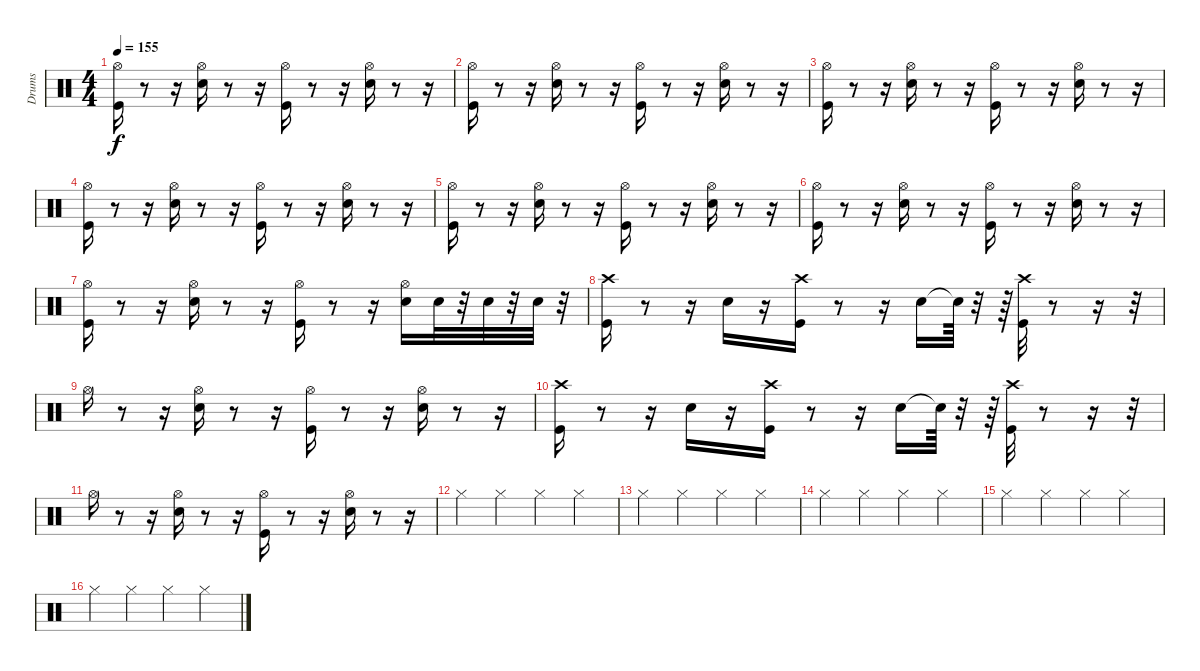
\track ("Drums" "Drums") {instrument percussion}
\staff {score}
\articulation defaults
\ts (4 4)
\tempo 155
\clef neutral
\ks c
("Hi-Hat (open)" "Kick (hit)").16{dy f} r.8 r.16 ("Hi-Hat (open)" "Snare (hit) 2").16 r.8 r.16 ("Kick (hit)" "Hi-Hat (open)").16 r.8 r.16 ("Snare (hit) 2" "Hi-Hat (open)").16 r.8 r.16 |
("Hi-Hat (open)" "Kick (hit)").16 r.8 r.16 ("Hi-Hat (open)" "Snare (hit) 2").16 r.8 r.16 ("Kick (hit)" "Hi-Hat (open)").16 r.8 r.16 ("Snare (hit) 2" "Hi-Hat (open)").16 r.8 r.16 |
("Hi-Hat (open)" "Kick (hit)").16 r.8 r.16 ("Hi-Hat (open)" "Snare (hit) 2").16 r.8 r.16 ("Kick (hit)" "Hi-Hat (open)").16 r.8 r.16 ("Snare (hit) 2" "Hi-Hat (open)").16 r.8 r.16 |
("Hi-Hat (open)" "Kick (hit)").16 r.8 r.16 ("Hi-Hat (open)" "Snare (hit) 2").16 r.8 r.16 ("Kick (hit)" "Hi-Hat (open)").16 r.8 r.16 ("Snare (hit) 2" "Hi-Hat (open)").16 r.8 r.16 |
("Hi-Hat (open)" "Kick (hit)").16 r.8 r.16 ("Hi-Hat (open)" "Snare (hit) 2").16 r.8 r.16 ("Kick (hit)" "Hi-Hat (open)").16 r.8 r.16 ("Snare (hit) 2" "Hi-Hat (open)").16 r.8 r.16 |
("Hi-Hat (open)" "Kick (hit)").16 r.8 r.16 ("Hi-Hat (open)" "Snare (hit) 2").16 r.8 r.16 ("Kick (hit)" "Hi-Hat (open)").16 r.8 r.16 ("Snare (hit) 2" "Hi-Hat (open)").16 r.8 r.16 |
("Kick (hit)" "Hi-Hat (open)").16 r.8 r.16 ("Snare (hit) 2" "Hi-Hat (open)").16 r.8 r.16 ("Kick (hit)" "Hi-Hat (open)").16 r.8 r.16 ("Snare (hit) 2" "Hi-Hat (open)").16 "Snare (hit) 2".32 r.32 "Electric Snare (hit)".32 r.32 "Electric Snare (hit)".32 r.32 |
("Crash high (hit)" "Kick (hit)").16 r.8 r.16 "Snare (hit) 2".16 r.16 ("Kick (hit)" "Crash high (hit)").16 r.8 r.16 "Snare (hit) 2".16 "Snare (hit)"{t}.64 r.32 r.64 ("Kick (hit)" "Crash high (hit)").32 r.8 r.16 r.32 |
"Hi-Hat (open)".16 r.8 r.16 ("Hi-Hat (open)" "Snare (hit) 2").16 r.8 r.16 ("Hi-Hat (open)" "Kick (hit)").16 r.8 r.16 ("Hi-Hat (open)" "Snare (hit) 2").16 r.8 r.16 |
("Kick (hit)" "Crash high (hit)").16 r.8 r.16 "Snare (hit) 2".16 r.16 ("Kick (hit)" "Crash high (hit)").16 r.8 r.16 "Snare (hit) 2".16 "Snare (hit)"{t}.64 r.32 r.64 ("Kick (hit)" "Crash high (hit)").32 r.8 r.16 r.32 |
"Hi-Hat (open)".16 r.8 r.16 ("Hi-Hat (open)" "Snare (hit) 2").16 r.8 r.16 ("Hi-Hat (open)" "Kick (hit)").16 r.8 r.16 ("Hi-Hat (open)" "Snare (hit) 2").16 r.8 r.16 |
"Hi-Hat (closed)".4 "Hi-Hat (closed)".4 "Hi-Hat (closed)".4 "Hi-Hat (closed)".4 |
"Hi-Hat (closed)".4 "Hi-Hat (closed)".4 "Hi-Hat (closed)".4 "Hi-Hat (closed)".4 |
"Hi-Hat (closed)".4 "Hi-Hat (closed)".4 "Hi-Hat (closed)".4 "Hi-Hat (closed)".4 |
"Hi-Hat (closed)".4 "Hi-Hat (closed)".4 "Hi-Hat (closed)".4 "Hi-Hat (closed)".4 |
"Hi-Hat (closed)".4 "Hi-Hat (closed)".4 "Hi-Hat (closed)".4 "Hi-Hat (closed)".4
